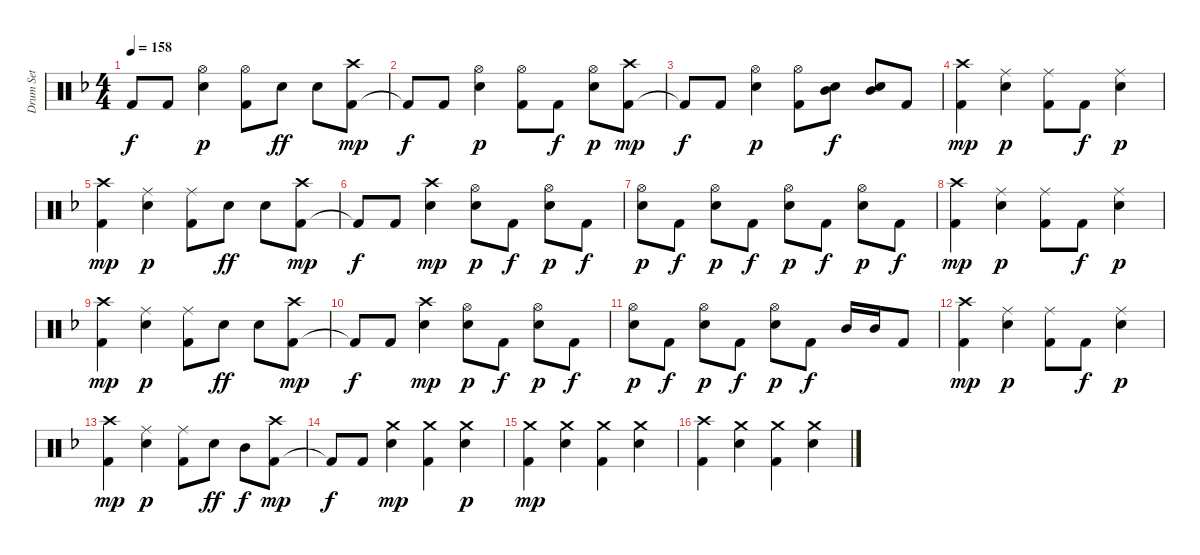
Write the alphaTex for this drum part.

\track ("Drum Set" "Drum Set") {instrument percussion}
\staff {score}
\articulation defaults
\ts (4 4)
\tempo 158
\clef neutral
\ks f "Kick (hit) 2"{t}.8{dy f} "Kick (hit) 2".8
("Electric Snare (hit)" "Hi-Hat (open)").4{dy p} ("Kick (hit) 2" "Hi-Hat (open)").8 "Electric Snare (hit)".8{dy ff} "Electric Snare (hit)".8 ("Kick (hit) 2" "Crash high (hit)").8{dy mp} |
"Kick (hit) 2"{t}.8{dy f} "Kick (hit) 2".8 ("Electric Snare (hit)" "Hi-Hat (open)").4{dy p} ("Kick (hit) 2" "Hi-Hat (open)").8 "Kick (hit) 2".8{dy f} ("Electric Snare (hit)" "Hi-Hat (open)").8{dy p} ("Kick (hit) 2" "Crash high (hit)").8{dy mp} |
"Kick (hit) 2"{t}.8{dy f} "Kick (hit) 2".8 ("Electric Snare (hit)" "Hi-Hat (open)").4{dy p} ("Kick (hit) 2" "Hi-Hat (open)").8 ("Mid Tom (hit)" "Electric Snare (hit)").8{dy f} ("Electric Snare (hit)" "Mid Tom (hit)").8 "Kick (hit) 2".8 |
("Kick (hit) 2" "Crash high (hit)").4{dy mp} ("Electric Snare (hit)" "Ride (middle)").4{dy p} ("Kick (hit) 2" "Ride (middle)").8 "Kick (hit) 2".8{dy f} ("Electric Snare (hit)" "Ride (middle)").4{dy p} |
("Kick (hit) 2" "Crash high (hit)").4{dy mp} ("Electric Snare (hit)" "Ride (middle)").4{dy p} ("Kick (hit) 2" "Ride (middle)").8 "Electric Snare (hit)".8{dy ff} "Electric Snare (hit)".8 ("Kick (hit) 2" "Crash high (hit)").8{dy mp} |
"Kick (hit) 2"{t}.8{dy f} "Kick (hit) 2".8 ("Electric Snare (hit)" "Crash high (hit)").4{dy mp} ("Electric Snare (hit)" "Hi-Hat (open)").8{dy p} "Kick (hit) 2".8{dy f} ("Electric Snare (hit)" "Hi-Hat (open)").8{dy p} "Kick (hit) 2".8{dy f} |
("Electric Snare (hit)" "Hi-Hat (open)").8{dy p} "Kick (hit) 2".8{dy f} ("Electric Snare (hit)" "Hi-Hat (open)").8{dy p} "Kick (hit) 2".8{dy f} ("Electric Snare (hit)" "Hi-Hat (open)").8{dy p} "Kick (hit) 2".8{dy f} ("Electric Snare (hit)" "Hi-Hat (open)").8{dy p} "Kick (hit) 2".8{dy f} |
("Kick (hit) 2" "Crash high (hit)").4{dy mp} ("Electric Snare (hit)" "Ride (middle)").4{dy p} ("Kick (hit) 2" "Ride (middle)").8 "Kick (hit) 2".8{dy f} ("Electric Snare (hit)" "Ride (middle)").4{dy p} |
("Kick (hit) 2" "Crash high (hit)").4{dy mp} ("Electric Snare (hit)" "Ride (middle)").4{dy p} ("Kick (hit) 2" "Ride (middle)").8 "Electric Snare (hit)".8{dy ff} "Electric Snare (hit)".8 ("Kick (hit) 2" "Crash high (hit)").8{dy mp} |
"Kick (hit) 2"{t}.8{dy f} "Kick (hit) 2".8 ("Electric Snare (hit)" "Crash high (hit)").4{dy mp} ("Electric Snare (hit)" "Hi-Hat (open)").8{dy p} "Kick (hit) 2".8{dy f} ("Electric Snare (hit)" "Hi-Hat (open)").8{dy p} "Kick (hit) 2".8{dy f} |
("Electric Snare (hit)" "Hi-Hat (open)").8{dy p} "Kick (hit) 2".8{dy f} ("Electric Snare (hit)" "Hi-Hat (open)").8{dy p} "Kick (hit) 2".8{dy f} ("Electric Snare (hit)" "Hi-Hat (open)").8{dy p} "Kick (hit) 2".8{dy f} "Mid Tom (hit)".16 "Mid Tom (hit)".16 "Kick (hit) 2".8 |
("Kick (hit) 2" "Crash high (hit)").4{dy mp} ("Electric Snare (hit)" "Ride (middle)").4{dy p} ("Kick (hit) 2" "Ride (middle)").8 "Kick (hit) 2".8{dy f} ("Electric Snare (hit)" "Ride (middle)").4{dy p} |
("Kick (hit) 2" "Crash high (hit)").4{dy mp} ("Electric Snare (hit)" "Ride (middle)").4{dy p} ("Kick (hit) 2" "Ride (middle)").8 "Electric Snare (hit)".8{dy ff} "Mid Tom (hit)".8{dy f} ("Kick (hit) 2" "Crash high (hit)").8{dy mp} |
"Kick (hit) 2"{t}.8{dy f} "Kick (hit) 2".8 ("Electric Snare (hit)" "Crash medium (hit)").4{dy mp} ("Kick (hit) 2" "Crash medium (hit)").4 ("Electric Snare (hit)" "Crash medium (hit)").4{dy p} |
("Kick (hit) 2" "Crash medium (hit)").4{dy mp} ("Crash medium (hit)" "Electric Snare (hit)").4 ("Kick (hit) 2" "Crash medium (hit)").4 ("Electric Snare (hit)" "Crash medium (hit)").4 |
("Kick (hit) 2" "Crash high (hit)").4 ("Crash medium (hit)" "Electric Snare (hit)").4 ("Kick (hit) 2" "Crash medium (hit)").4 ("Electric Snare (hit)" "Crash medium (hit)").4
